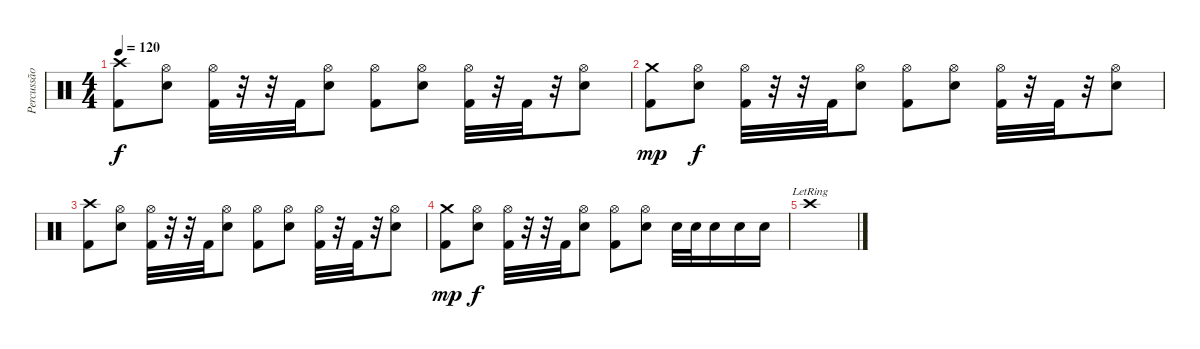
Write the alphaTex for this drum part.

\track ("Percussão" "Percussão") {instrument percussion}
\staff {score}
\articulation defaults
\ts (4 4)
\tempo 120
\clef neutral
\ks c
("Crash high (hit)" "Kick (hit) 2").8{dy f} ("Hi-Hat (open)" "Electric Snare (hit)").8 ("Hi-Hat (open)" "Kick (hit) 2").32 r.32 r.32 "Kick (hit) 2".32 ("Hi-Hat (open)" "Electric Snare (hit)").8 ("Hi-Hat (open)" "Kick (hit) 2").8 ("Hi-Hat (open)" "Electric Snare (hit)").8 ("Hi-Hat (open)" "Kick (hit) 2").32 r.32 "Kick (hit) 2".32 r.32 ("Hi-Hat (open)" "Electric Snare (hit)").8 |
("Crash medium (hit)" "Kick (hit) 2").8{dy mp} ("Hi-Hat (open)" "Electric Snare (hit)").8{dy f} ("Hi-Hat (open)" "Kick (hit) 2").32 r.32 r.32 "Kick (hit) 2".32 ("Hi-Hat (open)" "Electric Snare (hit)").8 ("Hi-Hat (open)" "Kick (hit) 2").8 ("Hi-Hat (open)" "Electric Snare (hit)").8 ("Hi-Hat (open)" "Kick (hit) 2").32 r.32 "Kick (hit) 2".32 r.32 ("Hi-Hat (open)" "Electric Snare (hit)").8 |
("Crash high (hit)" "Kick (hit) 2").8 ("Hi-Hat (open)" "Electric Snare (hit)").8 ("Hi-Hat (open)" "Kick (hit) 2").32 r.32 r.32 "Kick (hit) 2".32 ("Hi-Hat (open)" "Electric Snare (hit)").8 ("Hi-Hat (open)" "Kick (hit) 2").8 ("Hi-Hat (open)" "Electric Snare (hit)").8 ("Hi-Hat (open)" "Kick (hit) 2").32 r.32 "Kick (hit) 2".32 r.32 ("Hi-Hat (open)" "Electric Snare (hit)").8 |
("Crash medium (hit)" "Kick (hit) 2").8{dy mp} ("Hi-Hat (open)" "Electric Snare (hit)").8{dy f} ("Hi-Hat (open)" "Kick (hit) 2").32 r.32 r.32 "Kick (hit) 2".32 ("Hi-Hat (open)" "Electric Snare (hit)").8 ("Hi-Hat (open)" "Kick (hit) 2").8 ("Hi-Hat (open)" "Electric Snare (hit)").8 "Electric Snare (hit)".32 "Electric Snare (hit)".32 "Electric Snare (hit)".16 "Electric Snare (hit)".16 "Electric Snare (hit)".16 |
"Crash high (hit)"{lr}.1
